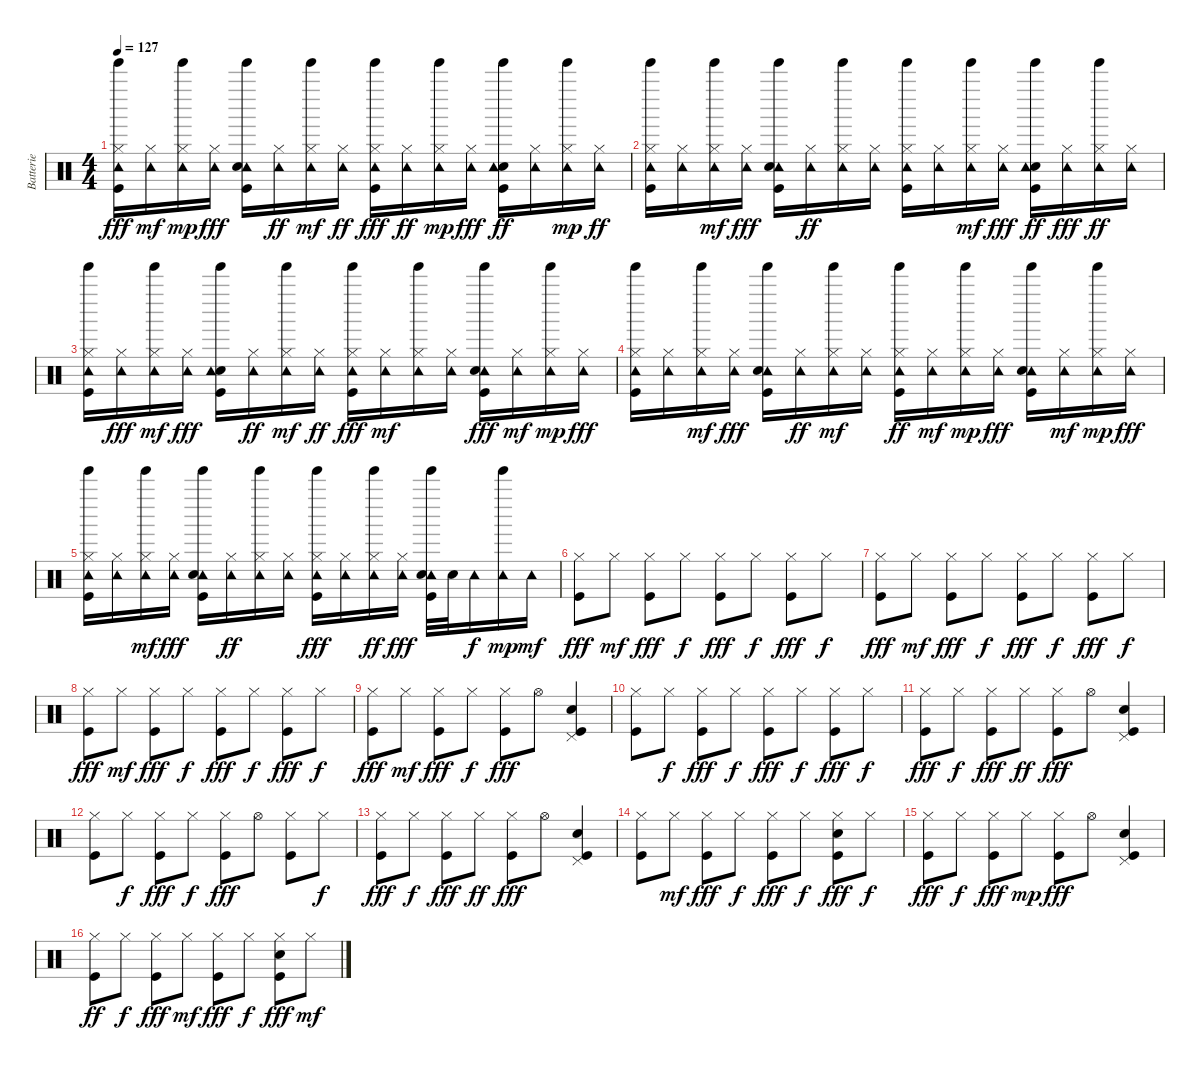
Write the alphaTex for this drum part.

\track ("Batterie" "Batterie") {instrument percussion}
\staff {score}
\articulation defaults
\ts (4 4)
\tempo 127
\clef neutral
\ks c
("Tinkle Bell (hit)" "Tambourine (hit)" "Hi-Hat (closed)" "Kick (hit)").16{dy fff} ("Tambourine (hit)" "Hi-Hat (closed)").16{dy mf} ("Tinkle Bell (hit)" "Hi-Hat (closed)" "Tambourine (hit)").16{dy mp} ("Tambourine (hit)" "Hi-Hat (closed)").16{dy fff} ("Tinkle Bell (hit)" "Tambourine (hit)" "Kick (hit)" "Snare (hit) 2").16 ("Tambourine (hit)" "Hi-Hat (closed)").16{dy ff} ("Tinkle Bell (hit)" "Tambourine (hit)" "Hi-Hat (closed)").16{dy mf} ("Tambourine (hit)" "Hi-Hat (closed)").16{dy ff} ("Tinkle Bell (hit)" "Tambourine (hit)" "Hi-Hat (closed)" "Kick (hit)").16{dy fff} ("Tambourine (hit)" "Hi-Hat (closed)").16{dy ff} ("Hi-Hat (closed)" "Tambourine (hit)" "Tinkle Bell (hit)").16{dy mp} ("Tambourine (hit)" "Hi-Hat (closed)").16{dy fff} ("Tinkle Bell (hit)" "Kick (hit)" "Snare (hit) 2" "Tambourine (hit)").16{dy ff} ("Tambourine (hit)" "Hi-Hat (closed)").16 ("Tinkle Bell (hit)" "Tambourine (hit)" "Hi-Hat (closed)").16{dy mp} ("Tambourine (hit)" "Hi-Hat (closed)").16{dy ff} |
("Tinkle Bell (hit)" "Kick (hit)" "Hi-Hat (closed)" "Tambourine (hit)").16 ("Tambourine (hit)" "Hi-Hat (closed)").16 ("Hi-Hat (closed)" "Tinkle Bell (hit)" "Tambourine (hit)").16{dy mf} ("Tambourine (hit)" "Hi-Hat (closed)").16{dy fff} ("Tinkle Bell (hit)" "Kick (hit)" "Tambourine (hit)" "Snare (hit) 2").16 ("Tambourine (hit)" "Hi-Hat (closed)").16{dy ff} ("Tinkle Bell (hit)" "Tambourine (hit)" "Hi-Hat (closed)").16 ("Tambourine (hit)" "Hi-Hat (closed)").16 ("Tinkle Bell (hit)" "Kick (hit)" "Hi-Hat (closed)" "Tambourine (hit)").16 ("Tambourine (hit)" "Hi-Hat (closed)").16 ("Tinkle Bell (hit)" "Hi-Hat (closed)" "Tambourine (hit)").16{dy mf} ("Tambourine (hit)" "Hi-Hat (closed)").16{dy fff} ("Tinkle Bell (hit)" "Kick (hit)" "Snare (hit) 2" "Tambourine (hit)").16{dy ff} ("Tambourine (hit)" "Hi-Hat (closed)").16{dy fff} ("Tambourine (hit)" "Tinkle Bell (hit)" "Hi-Hat (closed)").16{dy ff} ("Tambourine (hit)" "Hi-Hat (closed)").16 |
("Tinkle Bell (hit)" "Kick (hit)" "Hi-Hat (closed)" "Tambourine (hit)").16 ("Tambourine (hit)" "Hi-Hat (closed)").16{dy fff} ("Hi-Hat (closed)" "Tambourine (hit)" "Tinkle Bell (hit)").16{dy mf} ("Tambourine (hit)" "Hi-Hat (closed)").16{dy fff} ("Tinkle Bell (hit)" "Snare (hit) 2" "Tambourine (hit)" "Kick (hit)").16 ("Tambourine (hit)" "Hi-Hat (closed)").16{dy ff} ("Tinkle Bell (hit)" "Hi-Hat (closed)" "Tambourine (hit)").16{dy mf} ("Tambourine (hit)" "Hi-Hat (closed)").16{dy ff} ("Tinkle Bell (hit)" "Hi-Hat (closed)" "Tambourine (hit)" "Kick (hit)").16{dy fff} ("Hi-Hat (closed)" "Tambourine (hit)").16{dy mf} ("Tinkle Bell (hit)" "Hi-Hat (closed)" "Tambourine (hit)").16 ("Hi-Hat (closed)" "Tambourine (hit)").16 ("Tinkle Bell (hit)" "Kick (hit)" "Tambourine (hit)" "Snare (hit) 2").16{dy fff} ("Hi-Hat (closed)" "Tambourine (hit)").16{dy mf} ("Hi-Hat (closed)" "Tinkle Bell (hit)" "Tambourine (hit)").16{dy mp} ("Tambourine (hit)" "Hi-Hat (closed)").16{dy fff} |
("Hi-Hat (closed)" "Tambourine (hit)" "Tinkle Bell (hit)" "Kick (hit)").16 ("Tambourine (hit)" "Hi-Hat (closed)").16 ("Tambourine (hit)" "Tinkle Bell (hit)" "Hi-Hat (closed)").16{dy mf} ("Tambourine (hit)" "Hi-Hat (closed)").16{dy fff} ("Tinkle Bell (hit)" "Kick (hit)" "Tambourine (hit)" "Snare (hit) 2").16 ("Tambourine (hit)" "Hi-Hat (closed)").16{dy ff} ("Hi-Hat (closed)" "Tambourine (hit)" "Tinkle Bell (hit)").16{dy mf} ("Hi-Hat (closed)" "Tambourine (hit)").16 ("Tinkle Bell (hit)" "Kick (hit)" "Hi-Hat (closed)" "Tambourine (hit)").16{dy ff} ("Hi-Hat (closed)" "Tambourine (hit)").16{dy mf} ("Tinkle Bell (hit)" "Hi-Hat (closed)" "Tambourine (hit)").16{dy mp} ("Tambourine (hit)" "Hi-Hat (closed)").16{dy fff} ("Tinkle Bell (hit)" "Tambourine (hit)" "Kick (hit)" "Snare (hit) 2").16 ("Hi-Hat (closed)" "Tambourine (hit)").16{dy mf} ("Tambourine (hit)" "Hi-Hat (closed)" "Tinkle Bell (hit)").16{dy mp} ("Tambourine (hit)" "Hi-Hat (closed)").16{dy fff} |
("Tambourine (hit)" "Tinkle Bell (hit)" "Kick (hit)" "Hi-Hat (closed)").16 ("Tambourine (hit)" "Hi-Hat (closed)").16 ("Tinkle Bell (hit)" "Tambourine (hit)" "Hi-Hat (closed)").16{dy mf} ("Tambourine (hit)" "Hi-Hat (closed)").16{dy fff} ("Tambourine (hit)" "Tinkle Bell (hit)" "Kick (hit)" "Snare (hit) 2").16 ("Tambourine (hit)" "Hi-Hat (closed)").16{dy ff} ("Tinkle Bell (hit)" "Tambourine (hit)" "Hi-Hat (closed)").16 ("Tambourine (hit)" "Hi-Hat (closed)").16 ("Tinkle Bell (hit)" "Kick (hit)" "Tambourine (hit)" "Hi-Hat (closed)").16{dy fff} ("Tambourine (hit)" "Hi-Hat (closed)").16 ("Tambourine (hit)" "Tinkle Bell (hit)" "Hi-Hat (closed)").16{dy ff} ("Tambourine (hit)" "Hi-Hat (closed)").16{dy fff} ("Tambourine (hit)" "Tinkle Bell (hit)" "Snare (hit) 2" "Kick (hit)").32 "Snare (hit) 2".32 "Tambourine (hit)".16{dy f} ("Tambourine (hit)" "Tinkle Bell (hit)").16{dy mp} "Tambourine (hit)".16{dy mf} |
("Kick (hit)" "Hi-Hat (closed)").8{dy fff} "Hi-Hat (closed)".8{dy mf} ("Kick (hit)" "Hi-Hat (closed)").8{dy fff} "Hi-Hat (closed)".8{dy f} ("Kick (hit)" "Hi-Hat (closed)").8{dy fff} "Hi-Hat (closed)".8{dy f} ("Kick (hit)" "Hi-Hat (closed)").8{dy fff} "Hi-Hat (closed)".8{dy f} |
("Kick (hit)" "Hi-Hat (closed)").8{dy fff} "Hi-Hat (closed)".8{dy mf} ("Kick (hit)" "Hi-Hat (closed)").8{dy fff} "Hi-Hat (closed)".8{dy f} ("Kick (hit)" "Hi-Hat (closed)").8{dy fff} "Hi-Hat (closed)".8{dy f} ("Kick (hit)" "Hi-Hat (closed)").8{dy fff} "Hi-Hat (closed)".8{dy f} |
("Kick (hit)" "Hi-Hat (closed)").8{dy fff} "Hi-Hat (closed)".8{dy mf} ("Kick (hit)" "Hi-Hat (closed)").8{dy fff} "Hi-Hat (closed)".8{dy f} ("Kick (hit)" "Hi-Hat (closed)").8{dy fff} "Hi-Hat (closed)".8{dy f} ("Kick (hit)" "Hi-Hat (closed)").8{dy fff} "Hi-Hat (closed)".8{dy f} |
("Kick (hit)" "Hi-Hat (closed)").8{dy fff} "Hi-Hat (closed)".8{dy mf} ("Hi-Hat (closed)" "Kick (hit)").8{dy fff} "Hi-Hat (closed)".8{dy f} ("Kick (hit)" "Hi-Hat (closed)").8{dy fff} "Hi-Hat (open)".8 ("Pedal Hi-Hat (hit)" "Kick (hit)" "Snare (hit) 2").4 |
("Hi-Hat (closed)" "Kick (hit)").8 "Hi-Hat (closed)".8{dy f} ("Kick (hit)" "Hi-Hat (closed)").8{dy fff} "Hi-Hat (closed)".8{dy f} ("Hi-Hat (closed)" "Kick (hit)").8{dy fff} "Hi-Hat (closed)".8{dy f} ("Kick (hit)" "Hi-Hat (closed)").8{dy fff} "Hi-Hat (closed)".8{dy f} |
("Kick (hit)" "Hi-Hat (closed)").8{dy fff} "Hi-Hat (closed)".8{dy f} ("Kick (hit)" "Hi-Hat (closed)").8{dy fff} "Hi-Hat (closed)".8{dy ff} ("Kick (hit)" "Hi-Hat (closed)").8{dy fff} "Hi-Hat (open)".8 ("Kick (hit)" "Snare (hit) 2" "Pedal Hi-Hat (hit)").4 |
("Hi-Hat (closed)" "Kick (hit)").8 "Hi-Hat (closed)".8{dy f} ("Kick (hit)" "Hi-Hat (closed)").8{dy fff} "Hi-Hat (closed)".8{dy f} ("Kick (hit)" "Hi-Hat (closed)").8{dy fff} "Hi-Hat (open)".8 ("Hi-Hat (closed)" "Kick (hit)").8 "Hi-Hat (closed)".8{dy f} |
("Hi-Hat (closed)" "Kick (hit)").8{dy fff} "Hi-Hat (closed)".8{dy f} ("Hi-Hat (closed)" "Kick (hit)").8{dy fff} "Hi-Hat (closed)".8{dy ff} ("Kick (hit)" "Hi-Hat (closed)").8{dy fff} "Hi-Hat (open)".8 ("Kick (hit)" "Snare (hit) 2" "Pedal Hi-Hat (hit)").4 |
("Kick (hit)" "Hi-Hat (closed)").8 "Hi-Hat (closed)".8{dy mf} ("Kick (hit)" "Hi-Hat (closed)").8{dy fff} "Hi-Hat (closed)".8{dy f} ("Kick (hit)" "Hi-Hat (closed)").8{dy fff} "Hi-Hat (closed)".8{dy f} ("Kick (hit)" "Snare (hit) 2" "Hi-Hat (closed)").8{dy fff} "Hi-Hat (closed)".8{dy f} |
("Kick (hit)" "Hi-Hat (closed)").8{dy fff} "Hi-Hat (closed)".8{dy f} ("Kick (hit)" "Hi-Hat (closed)").8{dy fff} "Hi-Hat (closed)".8{dy mp} ("Kick (hit)" "Hi-Hat (closed)").8{dy fff} "Hi-Hat (open)".8 ("Pedal Hi-Hat (hit)" "Kick (hit)" "Snare (hit) 2").4 |
("Kick (hit)" "Hi-Hat (closed)").8{dy ff} "Hi-Hat (closed)".8{dy f} ("Kick (hit)" "Hi-Hat (closed)").8{dy fff} "Hi-Hat (closed)".8{dy mf} ("Hi-Hat (closed)" "Kick (hit)").8{dy fff} "Hi-Hat (closed)".8{dy f} ("Kick (hit)" "Snare (hit) 2" "Hi-Hat (closed)").8{dy fff} "Hi-Hat (closed)".8{dy mf}
